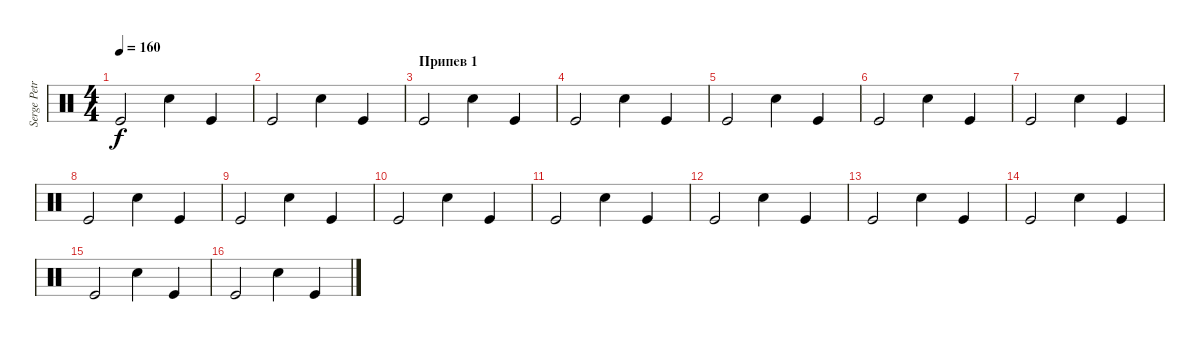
\track ("Serge Petrone" "Serge Petr") {instrument percussion}
\staff {score}
\articulation defaults
\ts (4 4)
\tempo 160
\clef neutral
\ks c "Kick (hit)".2{dy f} "Snare (hit) 2".4 "Kick (hit)".4
|
"Kick (hit)".2 "Snare (hit) 2".4 "Kick (hit)".4 |
\section ("" "Припев 1")
"Kick (hit)".2 "Snare (hit) 2".4 "Kick (hit)".4 |
"Kick (hit)".2 "Snare (hit) 2".4 "Kick (hit)".4 |
"Kick (hit)".2 "Snare (hit) 2".4 "Kick (hit)".4 |
"Kick (hit)".2 "Snare (hit) 2".4 "Kick (hit)".4 |
"Kick (hit)".2 "Snare (hit) 2".4 "Kick (hit)".4 |
"Kick (hit)".2 "Snare (hit) 2".4 "Kick (hit)".4 |
"Kick (hit)".2 "Snare (hit) 2".4 "Kick (hit)".4 |
"Kick (hit)".2 "Snare (hit) 2".4 "Kick (hit)".4 |
"Kick (hit)".2 "Snare (hit) 2".4 "Kick (hit)".4 |
"Kick (hit)".2 "Snare (hit) 2".4 "Kick (hit)".4 |
"Kick (hit)".2 "Snare (hit) 2".4 "Kick (hit)".4 |
"Kick (hit)".2 "Snare (hit) 2".4 "Kick (hit)".4 |
"Kick (hit)".2 "Snare (hit) 2".4 "Kick (hit)".4 |
"Kick (hit)".2 "Snare (hit) 2".4 "Kick (hit)".4
